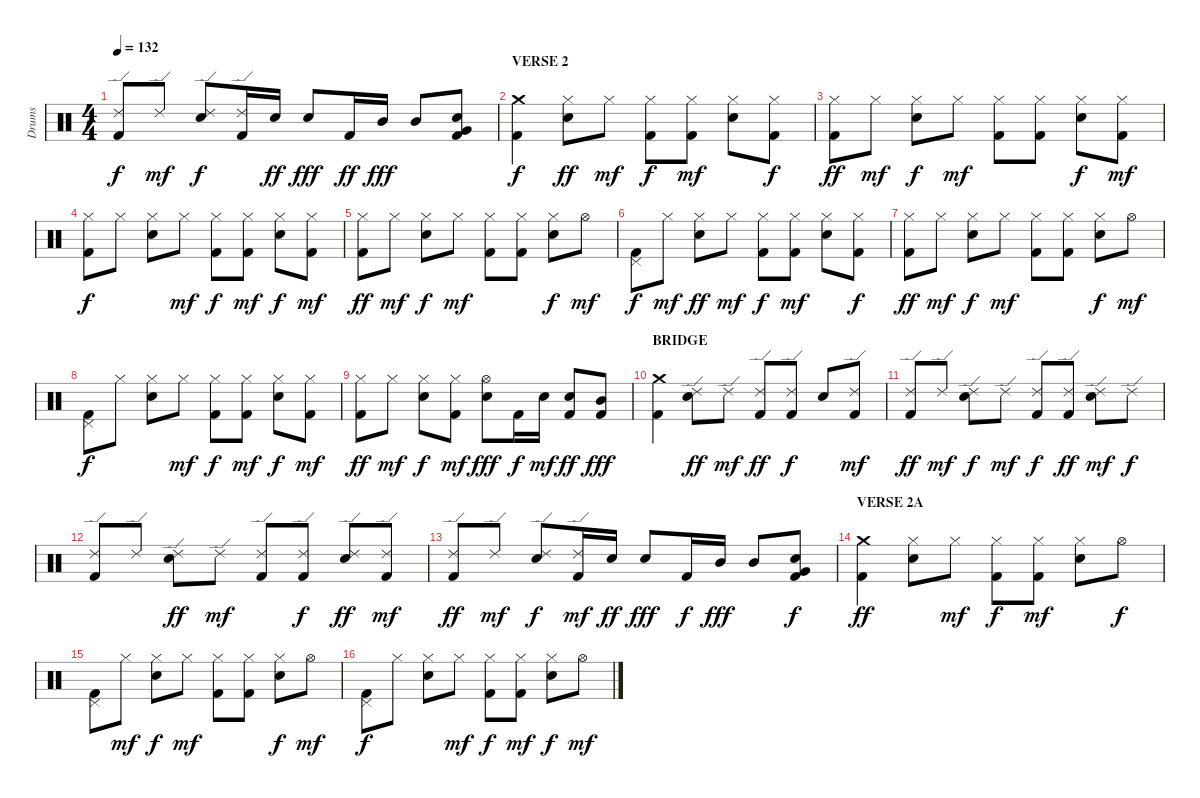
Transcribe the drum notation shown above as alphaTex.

\track ("Drums" "Drums") {instrument percussion}
\staff {score}
\articulation defaults
\ts (4 4)
\tempo 132
\clef neutral
\ks c
("Ride (edge) 2" "Kick (hit) 2").8{dy f} "Ride (edge) 2".8{dy mf} ("Ride (edge) 2" "Electric Snare (hit)").8{dy f} ("Ride (edge) 2" "Kick (hit) 2").16 "Electric Snare (hit)".16{dy ff} "Electric Snare (hit)".8{dy fff} "Kick (hit) 2".16{dy ff} "Mid Tom (hit)".16{dy fff} "Mid Tom (hit)".8 ("Electric Snare (hit)" "Very Low Tom (hit)" "Kick (hit) 2").8 |
\section ("" "VERSE 2")
("Crash medium (hit)" "Kick (hit) 2").4{dy f} ("Hi-Hat (closed)" "Electric Snare (hit)").8{dy ff} "Hi-Hat (closed)".8{dy mf} ("Hi-Hat (closed)" "Kick (hit) 2").8{dy f} ("Hi-Hat (closed)" "Kick (hit) 2").8{dy mf} ("Hi-Hat (closed)" "Electric Snare (hit)").8 ("Hi-Hat (closed)" "Kick (hit) 2").8{dy f} |
("Hi-Hat (closed)" "Kick (hit) 2").8{dy ff} "Hi-Hat (closed)".8{dy mf} ("Hi-Hat (closed)" "Electric Snare (hit)").8{dy f} "Hi-Hat (closed)".8{dy mf} ("Hi-Hat (closed)" "Kick (hit) 2").8 ("Hi-Hat (closed)" "Kick (hit) 2").8 ("Hi-Hat (closed)" "Electric Snare (hit)").8{dy f} ("Hi-Hat (closed)" "Kick (hit) 2").8{dy mf} |
("Hi-Hat (closed)" "Kick (hit) 2").8{dy f} "Hi-Hat (closed)".8 ("Hi-Hat (closed)" "Electric Snare (hit)").8 "Hi-Hat (closed)".8{dy mf} ("Hi-Hat (closed)" "Kick (hit) 2").8{dy f} ("Hi-Hat (closed)" "Kick (hit) 2").8{dy mf} ("Hi-Hat (closed)" "Electric Snare (hit)").8{dy f} ("Hi-Hat (closed)" "Kick (hit) 2").8{dy mf} |
("Hi-Hat (closed)" "Kick (hit) 2").8{dy ff} "Hi-Hat (closed)".8{dy mf} ("Hi-Hat (closed)" "Electric Snare (hit)").8{dy f} "Hi-Hat (closed)".8{dy mf} ("Hi-Hat (closed)" "Kick (hit) 2").8 ("Hi-Hat (closed)" "Kick (hit) 2").8 ("Hi-Hat (closed)" "Electric Snare (hit)").8{dy f} "Hi-Hat (open)".8{dy mf} |
("Pedal Hi-Hat (hit)" "Kick (hit) 2").8{dy f} "Hi-Hat (closed)".8{dy mf} ("Hi-Hat (closed)" "Electric Snare (hit)").8{dy ff} "Hi-Hat (closed)".8{dy mf} ("Hi-Hat (closed)" "Kick (hit) 2").8{dy f} ("Hi-Hat (closed)" "Kick (hit) 2").8{dy mf} ("Hi-Hat (closed)" "Electric Snare (hit)").8 ("Hi-Hat (closed)" "Kick (hit) 2").8{dy f} |
("Hi-Hat (closed)" "Kick (hit) 2").8{dy ff} "Hi-Hat (closed)".8{dy mf} ("Hi-Hat (closed)" "Electric Snare (hit)").8{dy f} "Hi-Hat (closed)".8{dy mf} ("Hi-Hat (closed)" "Kick (hit) 2").8 ("Hi-Hat (closed)" "Kick (hit) 2").8 ("Hi-Hat (closed)" "Electric Snare (hit)").8{dy f} "Hi-Hat (open)".8{dy mf} |
("Pedal Hi-Hat (hit)" "Kick (hit) 2").8{dy f} "Hi-Hat (closed)".8 ("Hi-Hat (closed)" "Electric Snare (hit)").8 "Hi-Hat (closed)".8{dy mf} ("Hi-Hat (closed)" "Kick (hit) 2").8{dy f} ("Hi-Hat (closed)" "Kick (hit) 2").8{dy mf} ("Hi-Hat (closed)" "Electric Snare (hit)").8{dy f} ("Hi-Hat (closed)" "Kick (hit) 2").8{dy mf} |
("Hi-Hat (closed)" "Kick (hit) 2").8{dy ff} "Hi-Hat (closed)".8{dy mf} ("Hi-Hat (closed)" "Electric Snare (hit)").8{dy f} ("Hi-Hat (closed)" "Kick (hit) 2").8{dy mf} ("Hi-Hat (open)" "Electric Snare (hit)").8{dy fff} "Kick (hit) 2".16{dy f} "Electric Snare (hit)".16{dy mf} ("Electric Snare (hit)" "Kick (hit) 2").8{dy ff} ("Mid Tom (hit)" "Kick (hit) 2").8{dy fff} |
\section ("" "BRIDGE")
("Crash medium (hit)" "Kick (hit) 2").4 ("Ride (edge) 2" "Electric Snare (hit)").8{dy ff} "Ride (edge) 2".8{dy mf} ("Ride (edge) 2" "Kick (hit) 2").8{dy ff} ("Ride (edge) 2" "Kick (hit) 2").8{dy f} "Electric Snare (hit)".8 ("Ride (edge) 2" "Kick (hit) 2").8{dy mf} |
("Ride (edge) 2" "Kick (hit) 2").8{dy ff} "Ride (edge) 2".8{dy mf} ("Ride (edge) 2" "Electric Snare (hit)").8{dy f} "Ride (edge) 2".8{dy mf} ("Ride (edge) 2" "Kick (hit) 2").8{dy f} ("Ride (edge) 2" "Kick (hit) 2").8{dy ff} ("Ride (edge) 2" "Electric Snare (hit)").8{dy mf} "Ride (edge) 2".8{dy f} |
("Ride (edge) 2" "Kick (hit) 2").8 "Ride (edge) 2".8 ("Ride (edge) 2" "Electric Snare (hit)").8{dy ff} "Ride (edge) 2".8{dy mf} ("Ride (edge) 2" "Kick (hit) 2").8 ("Ride (edge) 2" "Kick (hit) 2").8{dy f} ("Ride (edge) 2" "Electric Snare (hit)").8{dy ff} ("Ride (edge) 2" "Kick (hit) 2").8{dy mf} |
("Ride (edge) 2" "Kick (hit) 2").8{dy ff} "Ride (edge) 2".8{dy mf} ("Ride (edge) 2" "Electric Snare (hit)").8{dy f} ("Ride (edge) 2" "Kick (hit) 2").16{dy mf} "Electric Snare (hit)".16{dy ff} "Electric Snare (hit)".8{dy fff} "Kick (hit) 2".16{dy f} "Mid Tom (hit)".16{dy fff} "Mid Tom (hit)".8 ("Electric Snare (hit)" "Very Low Tom (hit)" "Kick (hit) 2").8{dy f} |
\section ("" "VERSE 2A")
("Crash medium (hit)" "Kick (hit) 2").4{dy ff} ("Hi-Hat (closed)" "Electric Snare (hit)").8 "Hi-Hat (closed)".8{dy mf} ("Hi-Hat (closed)" "Kick (hit) 2").8{dy f} ("Hi-Hat (closed)" "Kick (hit) 2").8{dy mf} ("Hi-Hat (closed)" "Electric Snare (hit)").8 "Hi-Hat (open)".8{dy f} |
("Pedal Hi-Hat (hit)" "Kick (hit) 2").8 "Hi-Hat (closed)".8{dy mf} ("Hi-Hat (closed)" "Electric Snare (hit)").8{dy f} "Hi-Hat (closed)".8{dy mf} ("Hi-Hat (closed)" "Kick (hit) 2").8 ("Hi-Hat (closed)" "Kick (hit) 2").8 ("Hi-Hat (closed)" "Electric Snare (hit)").8{dy f} "Hi-Hat (open)".8{dy mf} |
("Pedal Hi-Hat (hit)" "Kick (hit) 2").8{dy f} "Hi-Hat (closed)".8 ("Hi-Hat (closed)" "Electric Snare (hit)").8 "Hi-Hat (closed)".8{dy mf} ("Hi-Hat (closed)" "Kick (hit) 2").8{dy f} ("Hi-Hat (closed)" "Kick (hit) 2").8{dy mf} ("Hi-Hat (closed)" "Electric Snare (hit)").8{dy f} "Hi-Hat (open)".8{dy mf}
